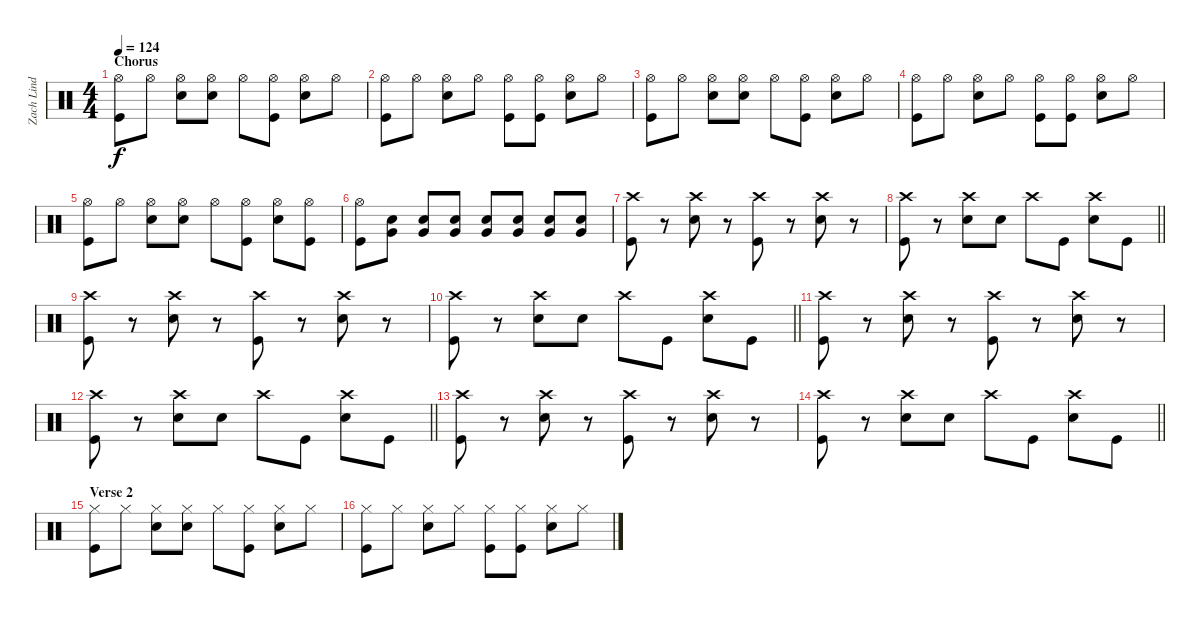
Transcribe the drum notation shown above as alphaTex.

\track ("Zach Lind - Drums" "Zach Lind ") {instrument percussion}
\staff {score}
\articulation defaults
\ts (4 4)
\section ("" "Chorus")
\tempo 124
\clef neutral
\ks c
("Kick (hit)" "Hi-Hat (open)").8{dy f} "Hi-Hat (open)".8 ("Snare (hit) 2" "Hi-Hat (open)").8 ("Snare (hit) 2" "Hi-Hat (open)").8 "Hi-Hat (open)".8 ("Kick (hit)" "Hi-Hat (open)").8 ("Snare (hit) 2" "Hi-Hat (open)").8 "Hi-Hat (open)".8 |
("Kick (hit)" "Hi-Hat (open)").8 "Hi-Hat (open)".8 ("Snare (hit) 2" "Hi-Hat (open)").8 "Hi-Hat (open)".8 ("Kick (hit)" "Hi-Hat (open)").8 ("Kick (hit)" "Hi-Hat (open)").8 ("Snare (hit) 2" "Hi-Hat (open)").8 "Hi-Hat (open)".8 |
("Kick (hit)" "Hi-Hat (open)").8 "Hi-Hat (open)".8 ("Snare (hit) 2" "Hi-Hat (open)").8 ("Snare (hit) 2" "Hi-Hat (open)").8 "Hi-Hat (open)".8 ("Kick (hit)" "Hi-Hat (open)").8 ("Snare (hit) 2" "Hi-Hat (open)").8 "Hi-Hat (open)".8 |
("Kick (hit)" "Hi-Hat (open)").8 "Hi-Hat (open)".8 ("Snare (hit) 2" "Hi-Hat (open)").8 "Hi-Hat (open)".8 ("Kick (hit)" "Hi-Hat (open)").8 ("Kick (hit)" "Hi-Hat (open)").8 ("Snare (hit) 2" "Hi-Hat (open)").8 "Hi-Hat (open)".8 |
("Kick (hit)" "Hi-Hat (open)").8 "Hi-Hat (open)".8 ("Snare (hit) 2" "Hi-Hat (open)").8 ("Snare (hit) 2" "Hi-Hat (open)").8 "Hi-Hat (open)".8 ("Kick (hit)" "Hi-Hat (open)").8 ("Snare (hit) 2" "Hi-Hat (open)").8 ("Kick (hit)" "Hi-Hat (open)").8 |
("Kick (hit)" "Hi-Hat (open)").8 ("Snare (hit) 2" "Very Low Tom (hit)").8 ("Snare (hit) 2" "Very Low Tom (hit)").8 ("Snare (hit) 2" "Very Low Tom (hit)").8 ("Snare (hit) 2" "Very Low Tom (hit)").8 ("Snare (hit) 2" "Very Low Tom (hit)").8 ("Snare (hit) 2" "Very Low Tom (hit)").8 ("Snare (hit) 2" "Very Low Tom (hit)").8 |
("Kick (hit)" "Crash high (hit)").8 r.8 ("Snare (hit) 2" "Crash high (hit)").8 r.8 ("Kick (hit)" "Crash high (hit)").8 r.8 ("Snare (hit) 2" "Crash high (hit)").8 r.8 |
\barLineRight lightlight
("Kick (hit)" "Crash high (hit)").8 r.8 ("Snare (hit) 2" "Crash high (hit)").8 "Snare (hit) 2".8 "Crash high (hit)".8 "Kick (hit)".8 ("Snare (hit) 2" "Crash high (hit)").8 "Kick (hit)".8 |
("Kick (hit)" "Crash high (hit)").8 r.8 ("Snare (hit) 2" "Crash high (hit)").8 r.8 ("Kick (hit)" "Crash high (hit)").8 r.8 ("Snare (hit) 2" "Crash high (hit)").8 r.8 |
\barLineRight lightlight
("Kick (hit)" "Crash high (hit)").8 r.8 ("Snare (hit) 2" "Crash high (hit)").8 "Snare (hit) 2".8 "Crash high (hit)".8 "Kick (hit)".8 ("Snare (hit) 2" "Crash high (hit)").8 "Kick (hit)".8 |
("Kick (hit)" "Crash high (hit)").8 r.8 ("Snare (hit) 2" "Crash high (hit)").8 r.8 ("Kick (hit)" "Crash high (hit)").8 r.8 ("Snare (hit) 2" "Crash high (hit)").8 r.8 |
\barLineRight lightlight
("Kick (hit)" "Crash high (hit)").8 r.8 ("Snare (hit) 2" "Crash high (hit)").8 "Snare (hit) 2".8 "Crash high (hit)".8 "Kick (hit)".8 ("Snare (hit) 2" "Crash high (hit)").8 "Kick (hit)".8 |
("Kick (hit)" "Crash high (hit)").8 r.8 ("Snare (hit) 2" "Crash high (hit)").8 r.8 ("Kick (hit)" "Crash high (hit)").8 r.8 ("Snare (hit) 2" "Crash high (hit)").8 r.8 |
\barLineRight lightlight
("Kick (hit)" "Crash high (hit)").8 r.8 ("Snare (hit) 2" "Crash high (hit)").8 "Snare (hit) 2".8 "Crash high (hit)".8 "Kick (hit)".8 ("Snare (hit) 2" "Crash high (hit)").8 "Kick (hit)".8 |
\section ("" "Verse 2")
("Kick (hit)" "Hi-Hat (closed)").8 "Hi-Hat (closed)".8 ("Snare (hit) 2" "Hi-Hat (closed)").8 ("Snare (hit) 2" "Hi-Hat (closed)").8 "Hi-Hat (closed)".8 ("Kick (hit)" "Hi-Hat (closed)").8 ("Snare (hit) 2" "Hi-Hat (closed)").8 "Hi-Hat (closed)".8 |
("Kick (hit)" "Hi-Hat (closed)").8 "Hi-Hat (closed)".8 ("Snare (hit) 2" "Hi-Hat (closed)").8 "Hi-Hat (closed)".8 ("Kick (hit)" "Hi-Hat (closed)").8 ("Kick (hit)" "Hi-Hat (closed)").8 ("Snare (hit) 2" "Hi-Hat (closed)").8 "Hi-Hat (closed)".8
